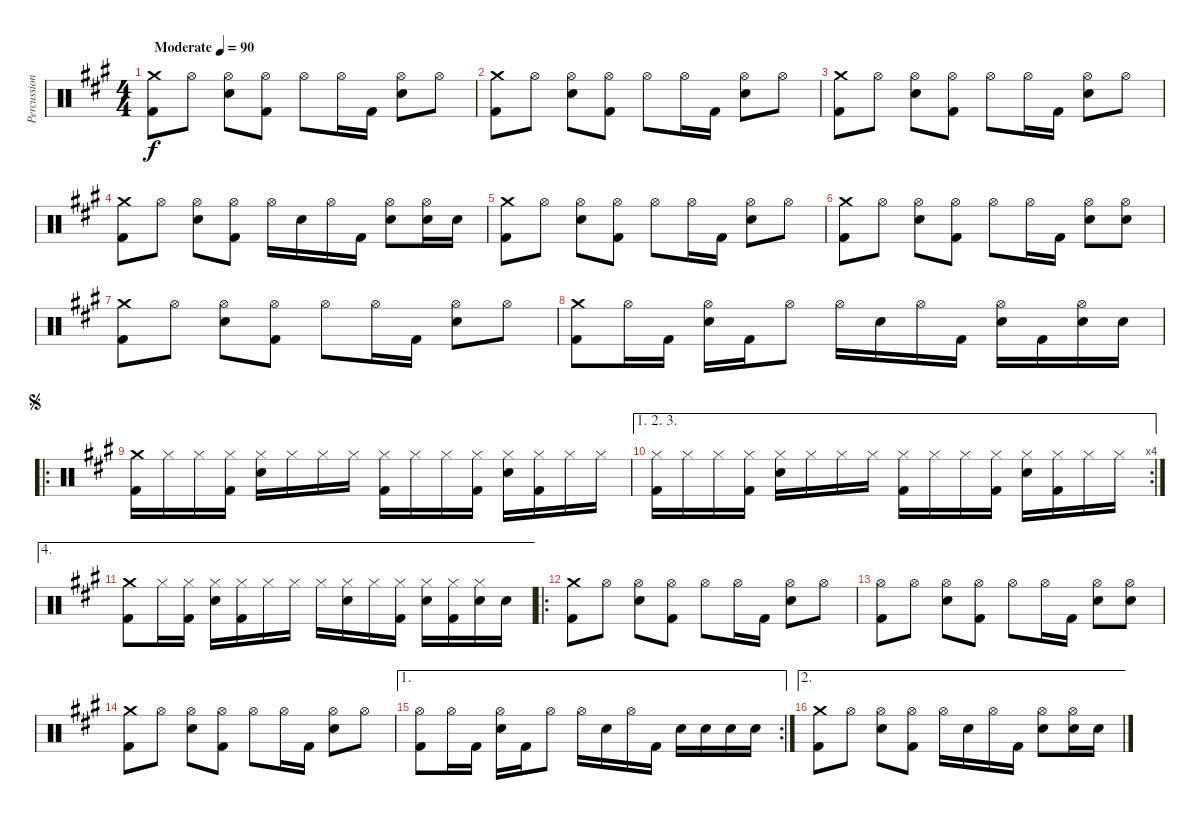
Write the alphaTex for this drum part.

\track ("Percussion" "Percussion") {instrument percussion}
\staff {score}
\articulation defaults
\ts (4 4)
\tempo (90 "Moderate")
\clef neutral
\ks f#minor
("Crash medium (hit)" "Kick (hit) 2").8{dy f} "Hi-Hat (open)".8 ("Hi-Hat (open)" "Electric Snare (hit)").8 ("Hi-Hat (open)" "Kick (hit) 2").8 "Hi-Hat (open)".8 "Hi-Hat (open)".16 "Kick (hit) 2".16 ("Hi-Hat (open)" "Electric Snare (hit)").8 "Hi-Hat (open)".8 |
("Crash medium (hit)" "Kick (hit) 2").8 "Hi-Hat (open)".8 ("Hi-Hat (open)" "Electric Snare (hit)").8 ("Hi-Hat (open)" "Kick (hit) 2").8 "Hi-Hat (open)".8 "Hi-Hat (open)".16 "Kick (hit) 2".16 ("Hi-Hat (open)" "Electric Snare (hit)").8 "Hi-Hat (open)".8 |
("Crash medium (hit)" "Kick (hit) 2").8 "Hi-Hat (open)".8 ("Hi-Hat (open)" "Electric Snare (hit)").8 ("Hi-Hat (open)" "Kick (hit) 2").8 "Hi-Hat (open)".8 "Hi-Hat (open)".16 "Kick (hit) 2".16 ("Hi-Hat (open)" "Electric Snare (hit)").8 "Hi-Hat (open)".8 |
("Crash medium (hit)" "Kick (hit) 2").8 "Hi-Hat (open)".8 ("Hi-Hat (open)" "Electric Snare (hit)").8 ("Hi-Hat (open)" "Kick (hit) 2").8 "Hi-Hat (open)".16 "Electric Snare (hit)".16 "Hi-Hat (open)".16 "Kick (hit) 2".16 ("Hi-Hat (open)" "Electric Snare (hit)").8 ("Hi-Hat (open)" "Electric Snare (hit)").16 "Electric Snare (hit)".16 |
("Crash medium (hit)" "Kick (hit) 2").8 "Hi-Hat (open)".8 ("Hi-Hat (open)" "Electric Snare (hit)").8 ("Hi-Hat (open)" "Kick (hit) 2").8 "Hi-Hat (open)".8 "Hi-Hat (open)".16 "Kick (hit) 2".16 ("Hi-Hat (open)" "Electric Snare (hit)").8 "Hi-Hat (open)".8 |
("Crash medium (hit)" "Kick (hit) 2").8 "Hi-Hat (open)".8 ("Hi-Hat (open)" "Electric Snare (hit)").8 ("Hi-Hat (open)" "Kick (hit) 2").8 "Hi-Hat (open)".8 "Hi-Hat (open)".16 "Kick (hit) 2".16 ("Hi-Hat (open)" "Electric Snare (hit)").8 ("Hi-Hat (open)" "Electric Snare (hit)").8 |
("Crash medium (hit)" "Kick (hit) 2").8 "Hi-Hat (open)".8 ("Hi-Hat (open)" "Electric Snare (hit)").8 ("Hi-Hat (open)" "Kick (hit) 2").8 "Hi-Hat (open)".8 "Hi-Hat (open)".16 "Kick (hit) 2".16 ("Hi-Hat (open)" "Electric Snare (hit)").8 "Hi-Hat (open)".8 |
("Crash medium (hit)" "Kick (hit) 2").8 "Hi-Hat (open)".16 "Kick (hit) 2".16 ("Hi-Hat (open)" "Electric Snare (hit)").16 "Kick (hit) 2".16 "Hi-Hat (open)".8 "Hi-Hat (open)".16 "Electric Snare (hit)".16 "Hi-Hat (open)".16 "Kick (hit) 2".16 ("Hi-Hat (open)" "Electric Snare (hit)").16 "Kick (hit) 2".16 ("Hi-Hat (open)" "Electric Snare (hit)").16 "Electric Snare (hit)".16 |
\ro
\jump segno
("Crash medium (hit)" "Kick (hit) 2").16 "Hi-Hat (closed)".16 "Hi-Hat (closed)".16 ("Hi-Hat (closed)" "Kick (hit) 2").16 ("Hi-Hat (closed)" "Electric Snare (hit)").16 "Hi-Hat (closed)".16 "Hi-Hat (closed)".16 "Hi-Hat (closed)".16 ("Hi-Hat (closed)" "Kick (hit) 2").16 "Hi-Hat (closed)".16 "Hi-Hat (closed)".16 ("Hi-Hat (closed)" "Kick (hit) 2").16 ("Hi-Hat (closed)" "Electric Snare (hit)").16 ("Hi-Hat (closed)" "Kick (hit) 2").16 "Hi-Hat (closed)".16 "Hi-Hat (closed)".16 |
\ae (1 2 3)
\rc 4
("Hi-Hat (closed)" "Kick (hit) 2").16 "Hi-Hat (closed)".16 "Hi-Hat (closed)".16 ("Hi-Hat (closed)" "Kick (hit) 2").16 ("Hi-Hat (closed)" "Electric Snare (hit)").16 "Hi-Hat (closed)".16 "Hi-Hat (closed)".16 "Hi-Hat (closed)".16 ("Hi-Hat (closed)" "Kick (hit) 2").16 "Hi-Hat (closed)".16 "Hi-Hat (closed)".16 ("Hi-Hat (closed)" "Kick (hit) 2").16 ("Hi-Hat (closed)" "Electric Snare (hit)").16 ("Hi-Hat (closed)" "Kick (hit) 2").16 "Hi-Hat (closed)".16 "Hi-Hat (closed)".16 |
\ae 4
("Crash medium (hit)" "Kick (hit) 2").8 "Hi-Hat (closed)".16 ("Hi-Hat (closed)" "Kick (hit) 2").16 ("Hi-Hat (closed)" "Electric Snare (hit)").16 ("Hi-Hat (closed)" "Kick (hit) 2").16 "Hi-Hat (closed)".16 "Hi-Hat (closed)".16 "Hi-Hat (closed)".16 ("Hi-Hat (closed)" "Electric Snare (hit)").16 "Hi-Hat (closed)".16 ("Hi-Hat (closed)" "Kick (hit) 2").16 ("Hi-Hat (closed)" "Electric Snare (hit)").16 ("Hi-Hat (closed)" "Kick (hit) 2").16 ("Hi-Hat (closed)" "Electric Snare (hit)").16 "Electric Snare (hit)".16 |
\ro
("Crash medium (hit)" "Kick (hit) 2").8 "Hi-Hat (open)".8 ("Hi-Hat (open)" "Electric Snare (hit)").8 ("Hi-Hat (open)" "Kick (hit) 2").8 "Hi-Hat (open)".8 "Hi-Hat (open)".16 "Kick (hit) 2".16 ("Hi-Hat (open)" "Electric Snare (hit)").8 "Hi-Hat (open)".8 |
("Hi-Hat (open)" "Kick (hit) 2").8 "Hi-Hat (open)".8 ("Hi-Hat (open)" "Electric Snare (hit)").8 ("Hi-Hat (open)" "Kick (hit) 2").8 "Hi-Hat (open)".8 "Hi-Hat (open)".16 "Kick (hit) 2".16 ("Hi-Hat (open)" "Electric Snare (hit)").8 ("Hi-Hat (open)" "Electric Snare (hit)").8 |
("Crash medium (hit)" "Kick (hit) 2").8 "Hi-Hat (open)".8 ("Hi-Hat (open)" "Electric Snare (hit)").8 ("Hi-Hat (open)" "Kick (hit) 2").8 "Hi-Hat (open)".8 "Hi-Hat (open)".16 "Kick (hit) 2".16 ("Hi-Hat (open)" "Electric Snare (hit)").8 "Hi-Hat (open)".8 |
\ae 1
\rc 2
("Hi-Hat (open)" "Kick (hit) 2").8 "Hi-Hat (open)".16 "Kick (hit) 2".16 ("Hi-Hat (open)" "Electric Snare (hit)").16 "Kick (hit) 2".16 "Hi-Hat (open)".8 "Hi-Hat (open)".16 "Electric Snare (hit)".16 "Hi-Hat (open)".16 "Kick (hit) 2".16 "Electric Snare (hit)".16 "Electric Snare (hit)".16 "Electric Snare (hit)".16 "Electric Snare (hit)".16 |
\ae 2
("Crash medium (hit)" "Kick (hit) 2").8 "Hi-Hat (open)".8 ("Hi-Hat (open)" "Electric Snare (hit)").8 ("Hi-Hat (open)" "Kick (hit) 2").8 "Hi-Hat (open)".16 "Electric Snare (hit)".16 "Hi-Hat (open)".16 "Kick (hit) 2".16 ("Hi-Hat (open)" "Electric Snare (hit)").8 ("Hi-Hat (open)" "Electric Snare (hit)").16 "Electric Snare (hit)".16
